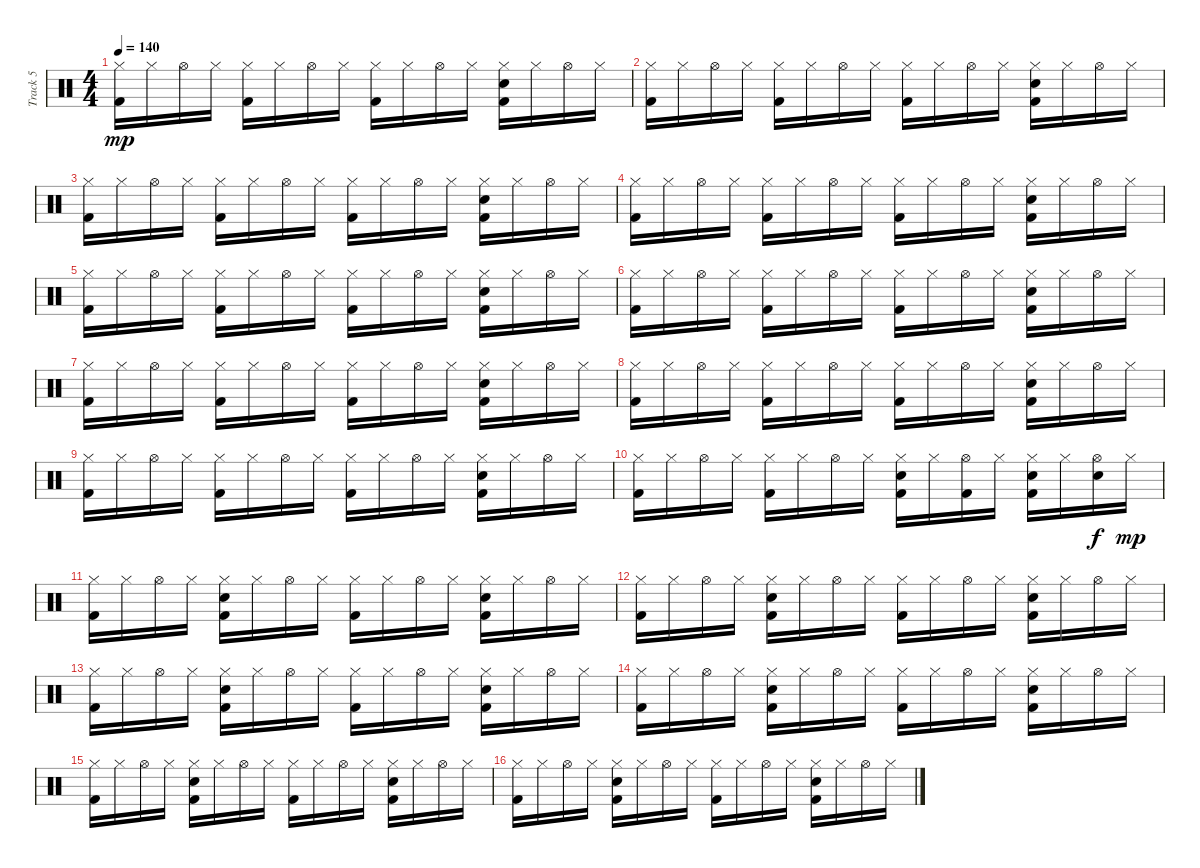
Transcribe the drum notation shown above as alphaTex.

\track ("Track 5" "Track 5") {instrument percussion}
\staff {score}
\articulation defaults
\ts (4 4)
\tempo 140
\clef neutral
\ks c
("Hi-Hat (closed)" "Kick (hit) 2").16{dy mp} "Hi-Hat (closed)".16 "Hi-Hat (open)".16 "Hi-Hat (closed)".16 ("Hi-Hat (closed)" "Kick (hit) 2").16 "Hi-Hat (closed)".16 "Hi-Hat (open)".16 "Hi-Hat (closed)".16 ("Hi-Hat (closed)" "Kick (hit) 2").16 "Hi-Hat (closed)".16 "Hi-Hat (open)".16 "Hi-Hat (closed)".16 ("Hi-Hat (closed)" "Electric Snare (hit)" "Kick (hit) 2").16 "Hi-Hat (closed)".16 "Hi-Hat (open)".16 "Hi-Hat (closed)".16 |
("Hi-Hat (closed)" "Kick (hit) 2").16 "Hi-Hat (closed)".16 "Hi-Hat (open)".16 "Hi-Hat (closed)".16 ("Hi-Hat (closed)" "Kick (hit) 2").16 "Hi-Hat (closed)".16 "Hi-Hat (open)".16 "Hi-Hat (closed)".16 ("Hi-Hat (closed)" "Kick (hit) 2").16 "Hi-Hat (closed)".16 "Hi-Hat (open)".16 "Hi-Hat (closed)".16 ("Hi-Hat (closed)" "Electric Snare (hit)" "Kick (hit) 2").16 "Hi-Hat (closed)".16 "Hi-Hat (open)".16 "Hi-Hat (closed)".16 |
("Hi-Hat (closed)" "Kick (hit) 2").16 "Hi-Hat (closed)".16 "Hi-Hat (open)".16 "Hi-Hat (closed)".16 ("Hi-Hat (closed)" "Kick (hit) 2").16 "Hi-Hat (closed)".16 "Hi-Hat (open)".16 "Hi-Hat (closed)".16 ("Hi-Hat (closed)" "Kick (hit) 2").16 "Hi-Hat (closed)".16 "Hi-Hat (open)".16 "Hi-Hat (closed)".16 ("Hi-Hat (closed)" "Electric Snare (hit)" "Kick (hit) 2").16 "Hi-Hat (closed)".16 "Hi-Hat (open)".16 "Hi-Hat (closed)".16 |
("Hi-Hat (closed)" "Kick (hit) 2").16 "Hi-Hat (closed)".16 "Hi-Hat (open)".16 "Hi-Hat (closed)".16 ("Hi-Hat (closed)" "Kick (hit) 2").16 "Hi-Hat (closed)".16 "Hi-Hat (open)".16 "Hi-Hat (closed)".16 ("Hi-Hat (closed)" "Kick (hit) 2").16 "Hi-Hat (closed)".16 "Hi-Hat (open)".16 "Hi-Hat (closed)".16 ("Hi-Hat (closed)" "Electric Snare (hit)" "Kick (hit) 2").16 "Hi-Hat (closed)".16 "Hi-Hat (open)".16 "Hi-Hat (closed)".16 |
("Hi-Hat (closed)" "Kick (hit) 2").16 "Hi-Hat (closed)".16 "Hi-Hat (open)".16 "Hi-Hat (closed)".16 ("Hi-Hat (closed)" "Kick (hit) 2").16 "Hi-Hat (closed)".16 "Hi-Hat (open)".16 "Hi-Hat (closed)".16 ("Hi-Hat (closed)" "Kick (hit) 2").16 "Hi-Hat (closed)".16 "Hi-Hat (open)".16 "Hi-Hat (closed)".16 ("Hi-Hat (closed)" "Electric Snare (hit)" "Kick (hit) 2").16 "Hi-Hat (closed)".16 "Hi-Hat (open)".16 "Hi-Hat (closed)".16 |
("Hi-Hat (closed)" "Kick (hit) 2").16 "Hi-Hat (closed)".16 "Hi-Hat (open)".16 "Hi-Hat (closed)".16 ("Hi-Hat (closed)" "Kick (hit) 2").16 "Hi-Hat (closed)".16 "Hi-Hat (open)".16 "Hi-Hat (closed)".16 ("Hi-Hat (closed)" "Kick (hit) 2").16 "Hi-Hat (closed)".16 "Hi-Hat (open)".16 "Hi-Hat (closed)".16 ("Hi-Hat (closed)" "Electric Snare (hit)" "Kick (hit) 2").16 "Hi-Hat (closed)".16 "Hi-Hat (open)".16 "Hi-Hat (closed)".16 |
("Hi-Hat (closed)" "Kick (hit) 2").16 "Hi-Hat (closed)".16 "Hi-Hat (open)".16 "Hi-Hat (closed)".16 ("Hi-Hat (closed)" "Kick (hit) 2").16 "Hi-Hat (closed)".16 "Hi-Hat (open)".16 "Hi-Hat (closed)".16 ("Hi-Hat (closed)" "Kick (hit) 2").16 "Hi-Hat (closed)".16 "Hi-Hat (open)".16 "Hi-Hat (closed)".16 ("Hi-Hat (closed)" "Electric Snare (hit)" "Kick (hit) 2").16 "Hi-Hat (closed)".16 "Hi-Hat (open)".16 "Hi-Hat (closed)".16 |
("Hi-Hat (closed)" "Kick (hit) 2").16 "Hi-Hat (closed)".16 "Hi-Hat (open)".16 "Hi-Hat (closed)".16 ("Hi-Hat (closed)" "Kick (hit) 2").16 "Hi-Hat (closed)".16 "Hi-Hat (open)".16 "Hi-Hat (closed)".16 ("Hi-Hat (closed)" "Kick (hit) 2").16 "Hi-Hat (closed)".16 "Hi-Hat (open)".16 "Hi-Hat (closed)".16 ("Hi-Hat (closed)" "Electric Snare (hit)" "Kick (hit) 2").16 "Hi-Hat (closed)".16 "Hi-Hat (open)".16 "Hi-Hat (closed)".16 |
("Hi-Hat (closed)" "Kick (hit) 2").16 "Hi-Hat (closed)".16 "Hi-Hat (open)".16 "Hi-Hat (closed)".16 ("Hi-Hat (closed)" "Kick (hit) 2").16 "Hi-Hat (closed)".16 "Hi-Hat (open)".16 "Hi-Hat (closed)".16 ("Hi-Hat (closed)" "Kick (hit) 2").16 "Hi-Hat (closed)".16 "Hi-Hat (open)".16 "Hi-Hat (closed)".16 ("Hi-Hat (closed)" "Electric Snare (hit)" "Kick (hit) 2").16 "Hi-Hat (closed)".16 "Hi-Hat (open)".16 "Hi-Hat (closed)".16 |
("Hi-Hat (closed)" "Kick (hit) 2").16 "Hi-Hat (closed)".16 "Hi-Hat (open)".16 "Hi-Hat (closed)".16 ("Hi-Hat (closed)" "Kick (hit) 2").16 "Hi-Hat (closed)".16 "Hi-Hat (open)".16 "Hi-Hat (closed)".16 ("Hi-Hat (closed)" "Electric Snare (hit)" "Kick (hit) 2").16 "Hi-Hat (closed)".16 ("Hi-Hat (open)" "Kick (hit) 2").16 "Hi-Hat (closed)".16 ("Hi-Hat (closed)" "Electric Snare (hit)" "Kick (hit) 2").16 "Hi-Hat (closed)".16 ("Hi-Hat (open)" "Electric Snare (hit)").16{dy f} "Hi-Hat (closed)".16{dy mp} |
("Hi-Hat (closed)" "Kick (hit) 2").16 "Hi-Hat (closed)".16 "Hi-Hat (open)".16 "Hi-Hat (closed)".16 ("Hi-Hat (closed)" "Electric Snare (hit)" "Kick (hit) 2").16 "Hi-Hat (closed)".16 "Hi-Hat (open)".16 "Hi-Hat (closed)".16 ("Hi-Hat (closed)" "Kick (hit) 2").16 "Hi-Hat (closed)".16 "Hi-Hat (open)".16 "Hi-Hat (closed)".16 ("Hi-Hat (closed)" "Electric Snare (hit)" "Kick (hit) 2").16 "Hi-Hat (closed)".16 "Hi-Hat (open)".16 "Hi-Hat (closed)".16 |
("Hi-Hat (closed)" "Kick (hit) 2").16 "Hi-Hat (closed)".16 "Hi-Hat (open)".16 "Hi-Hat (closed)".16 ("Hi-Hat (closed)" "Electric Snare (hit)" "Kick (hit) 2").16 "Hi-Hat (closed)".16 "Hi-Hat (open)".16 "Hi-Hat (closed)".16 ("Hi-Hat (closed)" "Kick (hit) 2").16 "Hi-Hat (closed)".16 "Hi-Hat (open)".16 "Hi-Hat (closed)".16 ("Hi-Hat (closed)" "Electric Snare (hit)" "Kick (hit) 2").16 "Hi-Hat (closed)".16 "Hi-Hat (open)".16 "Hi-Hat (closed)".16 |
("Hi-Hat (closed)" "Kick (hit) 2").16 "Hi-Hat (closed)".16 "Hi-Hat (open)".16 "Hi-Hat (closed)".16 ("Hi-Hat (closed)" "Electric Snare (hit)" "Kick (hit) 2").16 "Hi-Hat (closed)".16 "Hi-Hat (open)".16 "Hi-Hat (closed)".16 ("Hi-Hat (closed)" "Kick (hit) 2").16 "Hi-Hat (closed)".16 "Hi-Hat (open)".16 "Hi-Hat (closed)".16 ("Hi-Hat (closed)" "Electric Snare (hit)" "Kick (hit) 2").16 "Hi-Hat (closed)".16 "Hi-Hat (open)".16 "Hi-Hat (closed)".16 |
("Hi-Hat (closed)" "Kick (hit) 2").16 "Hi-Hat (closed)".16 "Hi-Hat (open)".16 "Hi-Hat (closed)".16 ("Hi-Hat (closed)" "Electric Snare (hit)" "Kick (hit) 2").16 "Hi-Hat (closed)".16 "Hi-Hat (open)".16 "Hi-Hat (closed)".16 ("Hi-Hat (closed)" "Kick (hit) 2").16 "Hi-Hat (closed)".16 "Hi-Hat (open)".16 "Hi-Hat (closed)".16 ("Hi-Hat (closed)" "Electric Snare (hit)" "Kick (hit) 2").16 "Hi-Hat (closed)".16 "Hi-Hat (open)".16 "Hi-Hat (closed)".16 |
("Hi-Hat (closed)" "Kick (hit) 2").16 "Hi-Hat (closed)".16 "Hi-Hat (open)".16 "Hi-Hat (closed)".16 ("Hi-Hat (closed)" "Electric Snare (hit)" "Kick (hit) 2").16 "Hi-Hat (closed)".16 "Hi-Hat (open)".16 "Hi-Hat (closed)".16 ("Hi-Hat (closed)" "Kick (hit) 2").16 "Hi-Hat (closed)".16 "Hi-Hat (open)".16 "Hi-Hat (closed)".16 ("Hi-Hat (closed)" "Electric Snare (hit)" "Kick (hit) 2").16 "Hi-Hat (closed)".16 "Hi-Hat (open)".16 "Hi-Hat (closed)".16 |
("Hi-Hat (closed)" "Kick (hit) 2").16 "Hi-Hat (closed)".16 "Hi-Hat (open)".16 "Hi-Hat (closed)".16 ("Hi-Hat (closed)" "Electric Snare (hit)" "Kick (hit) 2").16 "Hi-Hat (closed)".16 "Hi-Hat (open)".16 "Hi-Hat (closed)".16 ("Hi-Hat (closed)" "Kick (hit) 2").16 "Hi-Hat (closed)".16 "Hi-Hat (open)".16 "Hi-Hat (closed)".16 ("Hi-Hat (closed)" "Electric Snare (hit)" "Kick (hit) 2").16 "Hi-Hat (closed)".16 "Hi-Hat (open)".16 "Hi-Hat (closed)".16
